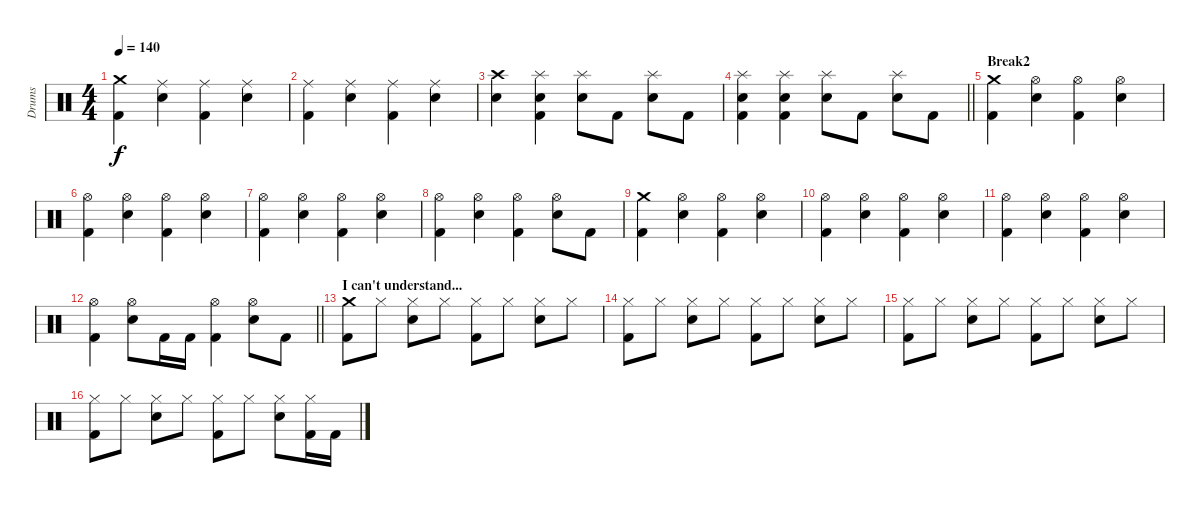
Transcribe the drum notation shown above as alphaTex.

\track ("Drums" "Drums") {instrument percussion}
\staff {score}
\articulation defaults
\ts (4 4)
\tempo 140
\clef neutral
\ks c
("Crash medium (hit)" "Kick (hit) 2").4{dy f} ("Ride (middle)" "Electric Snare (hit)").4 ("Ride (middle)" "Kick (hit) 2").4 ("Ride (middle)" "Electric Snare (hit)").4 |
("Ride (middle)" "Kick (hit) 2").4 ("Ride (middle)" "Electric Snare (hit)").4 ("Ride (middle)" "Kick (hit) 2").4 ("Ride (middle)" "Electric Snare (hit)").4 |
("Crash high (hit)" "Electric Snare (hit)").4 ("Splash (hit)" "Electric Snare (hit)" "Kick (hit) 2").4 ("Splash (hit)" "Electric Snare (hit)").8 "Kick (hit) 2".8 ("Splash (hit)" "Electric Snare (hit)").8 "Kick (hit) 2".8 |
\barLineRight lightlight
("Splash (hit)" "Electric Snare (hit)" "Kick (hit) 2").4 ("Splash (hit)" "Electric Snare (hit)" "Kick (hit) 2").4 ("Splash (hit)" "Electric Snare (hit)").8 "Kick (hit) 2".8 ("Splash (hit)" "Electric Snare (hit)").8 "Kick (hit) 2".8 |
\section ("" "Break2")
("Crash medium (hit)" "Kick (hit) 2").4 ("Hi-Hat (open)" "Electric Snare (hit)").4 ("Hi-Hat (open)" "Kick (hit) 2").4 ("Hi-Hat (open)" "Electric Snare (hit)").4 |
("Hi-Hat (open)" "Kick (hit) 2").4 ("Hi-Hat (open)" "Electric Snare (hit)").4 ("Hi-Hat (open)" "Kick (hit) 2").4 ("Hi-Hat (open)" "Electric Snare (hit)").4 |
("Hi-Hat (open)" "Kick (hit) 2").4 ("Hi-Hat (open)" "Electric Snare (hit)").4 ("Hi-Hat (open)" "Kick (hit) 2").4 ("Hi-Hat (open)" "Electric Snare (hit)").4 |
("Hi-Hat (open)" "Kick (hit) 2").4 ("Hi-Hat (open)" "Electric Snare (hit)").4 ("Hi-Hat (open)" "Kick (hit) 2").4 ("Hi-Hat (open)" "Electric Snare (hit)").8 "Kick (hit) 2".8 |
("Crash medium (hit)" "Kick (hit) 2").4 ("Hi-Hat (open)" "Electric Snare (hit)").4 ("Hi-Hat (open)" "Kick (hit) 2").4 ("Hi-Hat (open)" "Electric Snare (hit)").4 |
("Hi-Hat (open)" "Kick (hit) 2").4 ("Hi-Hat (open)" "Electric Snare (hit)").4 ("Hi-Hat (open)" "Kick (hit) 2").4 ("Hi-Hat (open)" "Electric Snare (hit)").4 |
("Hi-Hat (open)" "Kick (hit) 2").4 ("Hi-Hat (open)" "Electric Snare (hit)").4 ("Hi-Hat (open)" "Kick (hit) 2").4 ("Hi-Hat (open)" "Electric Snare (hit)").4 |
\barLineRight lightlight
("Hi-Hat (open)" "Kick (hit) 2").4 ("Hi-Hat (open)" "Electric Snare (hit)").8 "Kick (hit) 2".16 "Kick (hit) 2".16 ("Hi-Hat (open)" "Kick (hit) 2").4 ("Hi-Hat (open)" "Electric Snare (hit)").8 "Kick (hit) 2".8 |
\section ("" "I can't understand...")
("Crash medium (hit)" "Kick (hit) 2").8 "Hi-Hat (closed)".8 ("Hi-Hat (closed)" "Electric Snare (hit)").8 "Hi-Hat (closed)".8 ("Hi-Hat (closed)" "Kick (hit) 2").8 "Hi-Hat (closed)".8 ("Hi-Hat (closed)" "Electric Snare (hit)").8 "Hi-Hat (closed)".8 |
("Hi-Hat (closed)" "Kick (hit) 2").8 "Hi-Hat (closed)".8 ("Hi-Hat (closed)" "Electric Snare (hit)").8 "Hi-Hat (closed)".8 ("Hi-Hat (closed)" "Kick (hit) 2").8 "Hi-Hat (closed)".8 ("Hi-Hat (closed)" "Electric Snare (hit)").8 "Hi-Hat (closed)".8 |
("Hi-Hat (closed)" "Kick (hit) 2").8 "Hi-Hat (closed)".8 ("Hi-Hat (closed)" "Electric Snare (hit)").8 "Hi-Hat (closed)".8 ("Hi-Hat (closed)" "Kick (hit) 2").8 "Hi-Hat (closed)".8 ("Hi-Hat (closed)" "Electric Snare (hit)").8 "Hi-Hat (closed)".8 |
("Hi-Hat (closed)" "Kick (hit) 2").8 "Hi-Hat (closed)".8 ("Hi-Hat (closed)" "Electric Snare (hit)").8 "Hi-Hat (closed)".8 ("Hi-Hat (closed)" "Kick (hit) 2").8 "Hi-Hat (closed)".8 ("Hi-Hat (closed)" "Electric Snare (hit)").8 ("Hi-Hat (closed)" "Kick (hit) 2").16 "Kick (hit) 2".16
